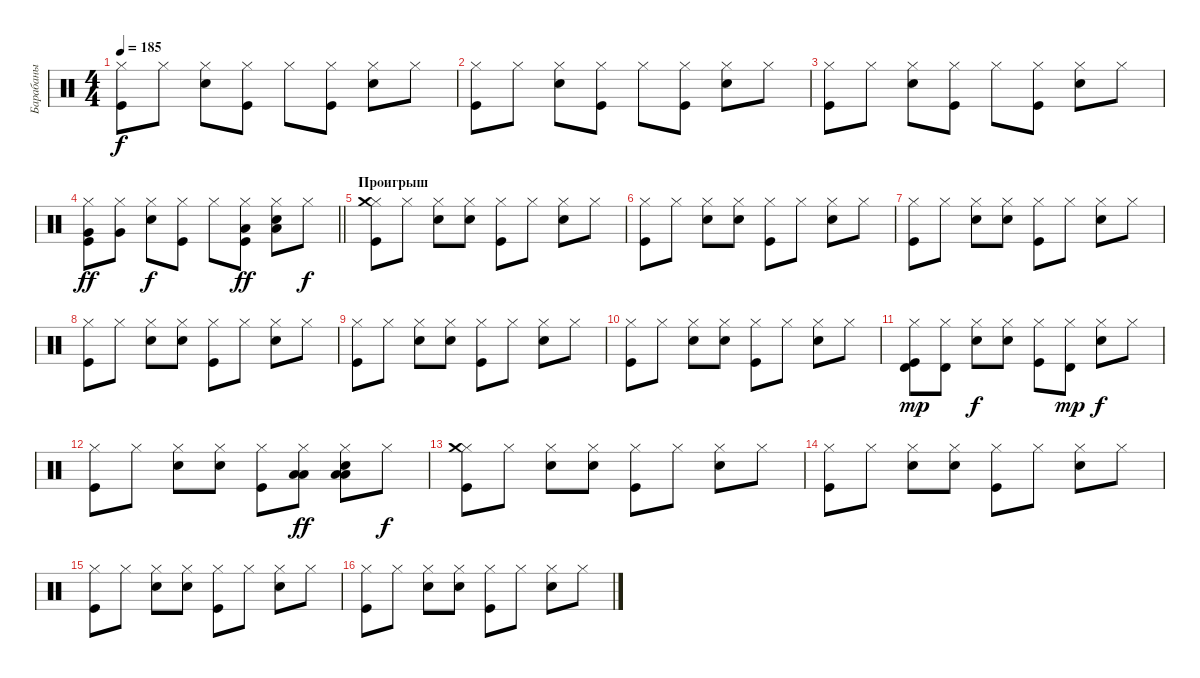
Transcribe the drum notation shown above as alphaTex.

\track ("Барабаны" "Барабаны") {instrument percussion}
\staff {score}
\articulation defaults
\ts (4 4)
\tempo 185
\clef neutral
\ks c
("Kick (hit)" "Hi-Hat (closed)").8{dy f} "Hi-Hat (closed)".8 ("Snare (hit) 2" "Hi-Hat (closed)").8 ("Kick (hit)" "Hi-Hat (closed)").8 "Hi-Hat (closed)".8 ("Kick (hit)" "Hi-Hat (closed)").8 ("Snare (hit) 2" "Hi-Hat (closed)").8 "Hi-Hat (closed)".8 |
("Kick (hit)" "Hi-Hat (closed)").8 "Hi-Hat (closed)".8 ("Snare (hit) 2" "Hi-Hat (closed)").8 ("Kick (hit)" "Hi-Hat (closed)").8 "Hi-Hat (closed)".8 ("Kick (hit)" "Hi-Hat (closed)").8 ("Snare (hit) 2" "Hi-Hat (closed)").8 "Hi-Hat (closed)".8 |
("Kick (hit)" "Hi-Hat (closed)").8 "Hi-Hat (closed)".8 ("Snare (hit) 2" "Hi-Hat (closed)").8 ("Kick (hit)" "Hi-Hat (closed)").8 "Hi-Hat (closed)".8 ("Kick (hit)" "Hi-Hat (closed)").8 ("Snare (hit) 2" "Hi-Hat (closed)").8 "Hi-Hat (closed)".8 |
\barLineRight lightlight
("Kick (hit)" "Hi-Hat (closed)" "Very Low Tom (hit)").8{dy ff} ("Hi-Hat (closed)" "Very Low Tom (hit)").8 ("Snare (hit) 2" "Hi-Hat (closed)").8{dy f} ("Kick (hit)" "Hi-Hat (closed)").8 "Hi-Hat (closed)".8 ("Kick (hit)" "Hi-Hat (closed)" "Low Floor Tom (hit)").8{dy ff} ("Snare (hit) 2" "Hi-Hat (closed)" "Low Floor Tom (hit)").8 "Hi-Hat (closed)".8{dy f} |
\section ("" "Проигрыш")
("Kick (hit)" "Hi-Hat (closed)" "Crash medium (hit)").8 "Hi-Hat (closed)".8 ("Snare (hit) 2" "Hi-Hat (closed)").8 ("Snare (hit) 2" "Hi-Hat (closed)").8 ("Kick (hit)" "Hi-Hat (closed)").8 "Hi-Hat (closed)".8 ("Snare (hit) 2" "Hi-Hat (closed)").8 "Hi-Hat (closed)".8 |
("Kick (hit)" "Hi-Hat (closed)").8 "Hi-Hat (closed)".8 ("Snare (hit) 2" "Hi-Hat (closed)").8 ("Snare (hit) 2" "Hi-Hat (closed)").8 ("Kick (hit)" "Hi-Hat (closed)").8 "Hi-Hat (closed)".8 ("Snare (hit) 2" "Hi-Hat (closed)").8 "Hi-Hat (closed)".8 |
("Kick (hit)" "Hi-Hat (closed)").8 "Hi-Hat (closed)".8 ("Snare (hit) 2" "Hi-Hat (closed)").8 ("Snare (hit) 2" "Hi-Hat (closed)").8 ("Kick (hit)" "Hi-Hat (closed)").8 "Hi-Hat (closed)".8 ("Snare (hit) 2" "Hi-Hat (closed)").8 "Hi-Hat (closed)".8 |
("Kick (hit)" "Hi-Hat (closed)").8 "Hi-Hat (closed)".8 ("Snare (hit) 2" "Hi-Hat (closed)").8 ("Snare (hit) 2" "Hi-Hat (closed)").8 ("Kick (hit)" "Hi-Hat (closed)").8 "Hi-Hat (closed)".8 ("Snare (hit) 2" "Hi-Hat (closed)").8 "Hi-Hat (closed)".8 |
("Kick (hit)" "Hi-Hat (closed)").8 "Hi-Hat (closed)".8 ("Snare (hit) 2" "Hi-Hat (closed)").8 ("Snare (hit) 2" "Hi-Hat (closed)").8 ("Kick (hit)" "Hi-Hat (closed)").8 "Hi-Hat (closed)".8 ("Snare (hit) 2" "Hi-Hat (closed)").8 "Hi-Hat (closed)".8 |
("Kick (hit)" "Hi-Hat (closed)").8 "Hi-Hat (closed)".8 ("Snare (hit) 2" "Hi-Hat (closed)").8 ("Snare (hit) 2" "Hi-Hat (closed)").8 ("Kick (hit)" "Hi-Hat (closed)").8 "Hi-Hat (closed)".8 ("Snare (hit) 2" "Hi-Hat (closed)").8 "Hi-Hat (closed)".8 |
("Kick (hit)" "Hi-Hat (closed)" "Timbale high (hit)").8{dy mp} ("Hi-Hat (closed)" "Timbale high (hit)").8 ("Snare (hit) 2" "Hi-Hat (closed)").8{dy f} ("Snare (hit) 2" "Hi-Hat (closed)").8 ("Kick (hit)" "Hi-Hat (closed)").8 ("Hi-Hat (closed)" "Timbale high (hit)").8{dy mp} ("Snare (hit) 2" "Hi-Hat (closed)").8{dy f} "Hi-Hat (closed)".8 |
("Kick (hit)" "Hi-Hat (closed)").8 "Hi-Hat (closed)".8 ("Snare (hit) 2" "Hi-Hat (closed)").8 ("Snare (hit) 2" "Hi-Hat (closed)").8 ("Kick (hit)" "Hi-Hat (closed)").8 ("Hi-Hat (closed)" "Low Floor Tom (hit)" "Low Floor Tom (hit)").8{dy ff} ("Snare (hit) 2" "Hi-Hat (closed)" "Low Floor Tom (hit)" "Low Floor Tom (hit)").8 "Hi-Hat (closed)".8{dy f} |
("Kick (hit)" "Hi-Hat (closed)" "Crash medium (hit)").8 "Hi-Hat (closed)".8 ("Snare (hit) 2" "Hi-Hat (closed)").8 ("Snare (hit) 2" "Hi-Hat (closed)").8 ("Kick (hit)" "Hi-Hat (closed)").8 "Hi-Hat (closed)".8 ("Snare (hit) 2" "Hi-Hat (closed)").8 "Hi-Hat (closed)".8 |
("Kick (hit)" "Hi-Hat (closed)").8 "Hi-Hat (closed)".8 ("Snare (hit) 2" "Hi-Hat (closed)").8 ("Snare (hit) 2" "Hi-Hat (closed)").8 ("Kick (hit)" "Hi-Hat (closed)").8 "Hi-Hat (closed)".8 ("Snare (hit) 2" "Hi-Hat (closed)").8 "Hi-Hat (closed)".8 |
("Kick (hit)" "Hi-Hat (closed)").8 "Hi-Hat (closed)".8 ("Snare (hit) 2" "Hi-Hat (closed)").8 ("Snare (hit) 2" "Hi-Hat (closed)").8 ("Kick (hit)" "Hi-Hat (closed)").8 "Hi-Hat (closed)".8 ("Snare (hit) 2" "Hi-Hat (closed)").8 "Hi-Hat (closed)".8 |
("Kick (hit)" "Hi-Hat (closed)").8 "Hi-Hat (closed)".8 ("Snare (hit) 2" "Hi-Hat (closed)").8 ("Snare (hit) 2" "Hi-Hat (closed)").8 ("Kick (hit)" "Hi-Hat (closed)").8 "Hi-Hat (closed)".8 ("Snare (hit) 2" "Hi-Hat (closed)").8 "Hi-Hat (closed)".8
